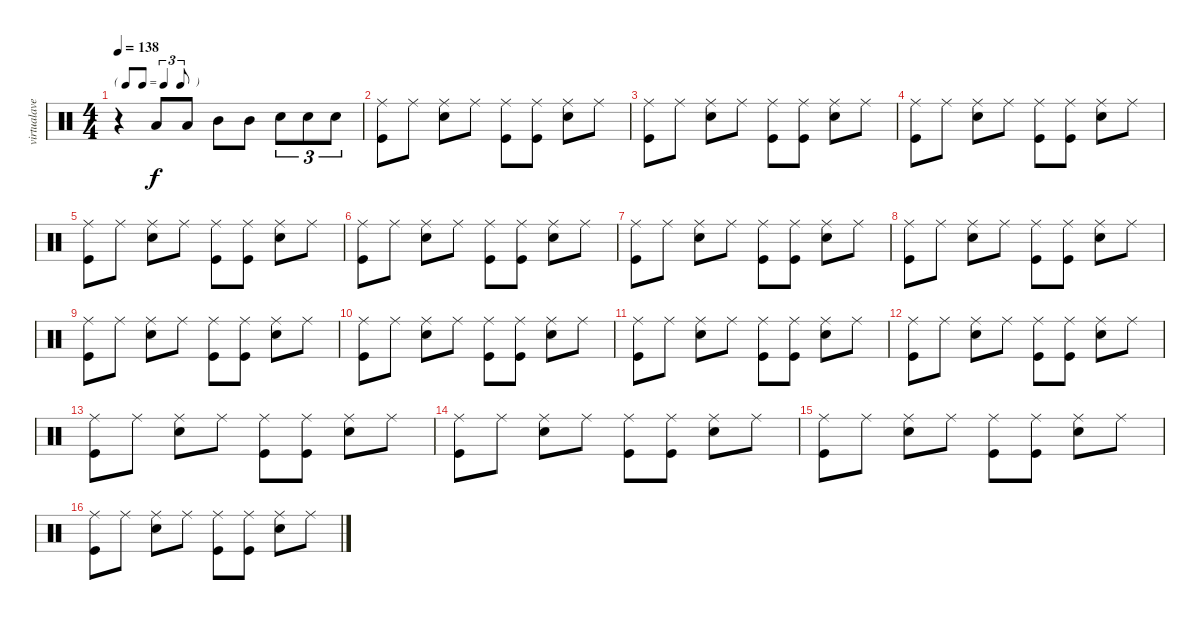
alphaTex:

\track ("virtualave.net" "virtualave") {instrument percussion}
\staff {score}
\articulation defaults
\ts (4 4)
\tf triplet8th
\tempo 138
\clef neutral
\ks c
r.4{dy f} "Low Tom (hit)".8 "Low Tom (hit)".8 "Mid Tom (hit)".8 "Mid Tom (hit)".8 "Snare (hit) 2".8{tu (3 2)} "Snare (hit) 2".8{tu (3 2)} "Snare (hit) 2".8{tu (3 2)} |
("Ride (middle)" "Kick (hit)").8 "Ride (middle)".8 ("Ride (middle)" "Snare (hit) 2").8 "Ride (middle)".8 ("Ride (middle)" "Kick (hit)").8 ("Ride (middle)" "Kick (hit)").8 ("Ride (middle)" "Snare (hit) 2").8 "Ride (middle)".8 |
("Ride (middle)" "Kick (hit)").8 "Ride (middle)".8 ("Ride (middle)" "Snare (hit) 2").8 "Ride (middle)".8 ("Ride (middle)" "Kick (hit)").8 ("Ride (middle)" "Kick (hit)").8 ("Ride (middle)" "Snare (hit) 2").8 "Ride (middle)".8 |
("Ride (middle)" "Kick (hit)").8 "Ride (middle)".8 ("Ride (middle)" "Snare (hit) 2").8 "Ride (middle)".8 ("Ride (middle)" "Kick (hit)").8 ("Ride (middle)" "Kick (hit)").8 ("Ride (middle)" "Snare (hit) 2").8 "Ride (middle)".8 |
("Ride (middle)" "Kick (hit)").8 "Ride (middle)".8 ("Ride (middle)" "Snare (hit) 2").8 "Ride (middle)".8 ("Ride (middle)" "Kick (hit)").8 ("Ride (middle)" "Kick (hit)").8 ("Ride (middle)" "Snare (hit) 2").8 "Ride (middle)".8 |
("Ride (middle)" "Kick (hit)").8 "Ride (middle)".8 ("Ride (middle)" "Snare (hit) 2").8 "Ride (middle)".8 ("Ride (middle)" "Kick (hit)").8 ("Ride (middle)" "Kick (hit)").8 ("Ride (middle)" "Snare (hit) 2").8 "Ride (middle)".8 |
("Ride (middle)" "Kick (hit)").8 "Ride (middle)".8 ("Ride (middle)" "Snare (hit) 2").8 "Ride (middle)".8 ("Ride (middle)" "Kick (hit)").8 ("Ride (middle)" "Kick (hit)").8 ("Ride (middle)" "Snare (hit) 2").8 "Ride (middle)".8 |
("Ride (middle)" "Kick (hit)").8 "Ride (middle)".8 ("Ride (middle)" "Snare (hit) 2").8 "Ride (middle)".8 ("Ride (middle)" "Kick (hit)").8 ("Ride (middle)" "Kick (hit)").8 ("Ride (middle)" "Snare (hit) 2").8 "Ride (middle)".8 |
("Ride (middle)" "Kick (hit)").8 "Ride (middle)".8 ("Ride (middle)" "Snare (hit) 2").8 "Ride (middle)".8 ("Ride (middle)" "Kick (hit)").8 ("Ride (middle)" "Kick (hit)").8 ("Ride (middle)" "Snare (hit) 2").8 "Ride (middle)".8 |
("Ride (middle)" "Kick (hit)").8 "Ride (middle)".8 ("Ride (middle)" "Snare (hit) 2").8 "Ride (middle)".8 ("Ride (middle)" "Kick (hit)").8 ("Ride (middle)" "Kick (hit)").8 ("Ride (middle)" "Snare (hit) 2").8 "Ride (middle)".8 |
("Ride (middle)" "Kick (hit)").8 "Ride (middle)".8 ("Ride (middle)" "Snare (hit) 2").8 "Ride (middle)".8 ("Ride (middle)" "Kick (hit)").8 ("Ride (middle)" "Kick (hit)").8 ("Ride (middle)" "Snare (hit) 2").8 "Ride (middle)".8 |
("Ride (middle)" "Kick (hit)").8 "Ride (middle)".8 ("Ride (middle)" "Snare (hit) 2").8 "Ride (middle)".8 ("Ride (middle)" "Kick (hit)").8 ("Ride (middle)" "Kick (hit)").8 ("Ride (middle)" "Snare (hit) 2").8 "Ride (middle)".8 |
("Ride (middle)" "Kick (hit)").8 "Ride (middle)".8 ("Ride (middle)" "Snare (hit) 2").8 "Ride (middle)".8 ("Ride (middle)" "Kick (hit)").8 ("Ride (middle)" "Kick (hit)").8 ("Ride (middle)" "Snare (hit) 2").8 "Ride (middle)".8 |
("Ride (middle)" "Kick (hit)").8 "Ride (middle)".8 ("Ride (middle)" "Snare (hit) 2").8 "Ride (middle)".8 ("Ride (middle)" "Kick (hit)").8 ("Ride (middle)" "Kick (hit)").8 ("Ride (middle)" "Snare (hit) 2").8 "Ride (middle)".8 |
("Ride (middle)" "Kick (hit)").8 "Ride (middle)".8 ("Ride (middle)" "Snare (hit) 2").8 "Ride (middle)".8 ("Ride (middle)" "Kick (hit)").8 ("Ride (middle)" "Kick (hit)").8 ("Ride (middle)" "Snare (hit) 2").8 "Ride (middle)".8 |
("Ride (middle)" "Kick (hit)").8 "Ride (middle)".8 ("Ride (middle)" "Snare (hit) 2").8 "Ride (middle)".8 ("Ride (middle)" "Kick (hit)").8 ("Ride (middle)" "Kick (hit)").8 ("Ride (middle)" "Snare (hit) 2").8 "Ride (middle)".8
